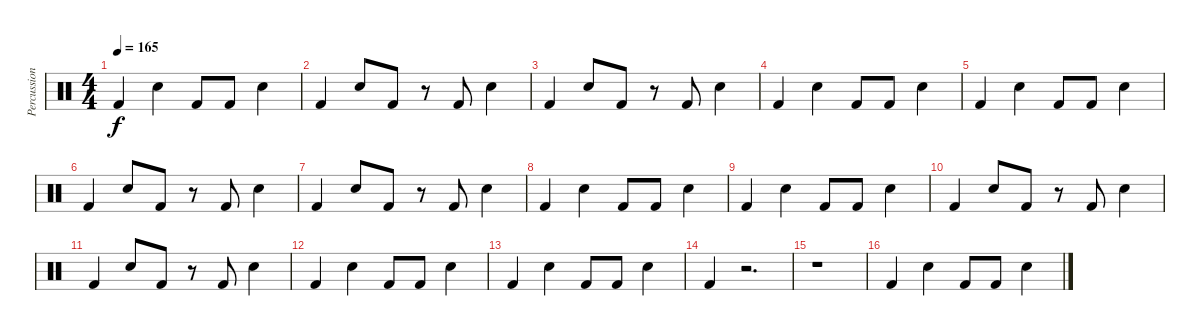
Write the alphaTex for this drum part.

\track ("Percussion" "Percussion") {instrument percussion}
\staff {score}
\articulation defaults
\ts (4 4)
\tempo 165
\clef neutral
\ks c "Kick (hit) 2".4{dy f} "Snare (hit) 2".4 "Kick (hit) 2".8 "Kick (hit) 2".8 "Snare (hit) 2".4
|
"Kick (hit) 2".4 "Snare (hit) 2".8 "Kick (hit) 2".8 r.8 "Kick (hit) 2".8 "Snare (hit) 2".4 |
"Kick (hit) 2".4 "Snare (hit) 2".8 "Kick (hit) 2".8 r.8 "Kick (hit) 2".8 "Snare (hit) 2".4 |
"Kick (hit) 2".4 "Snare (hit) 2".4 "Kick (hit) 2".8 "Kick (hit) 2".8 "Snare (hit) 2".4 |
"Kick (hit) 2".4 "Snare (hit) 2".4 "Kick (hit) 2".8 "Kick (hit) 2".8 "Snare (hit) 2".4 |
"Kick (hit) 2".4 "Snare (hit) 2".8 "Kick (hit) 2".8 r.8 "Kick (hit) 2".8 "Snare (hit) 2".4 |
"Kick (hit) 2".4 "Snare (hit) 2".8 "Kick (hit) 2".8 r.8 "Kick (hit) 2".8 "Snare (hit) 2".4 |
"Kick (hit) 2".4 "Snare (hit) 2".4 "Kick (hit) 2".8 "Kick (hit) 2".8 "Snare (hit) 2".4 |
"Kick (hit) 2".4 "Snare (hit) 2".4 "Kick (hit) 2".8 "Kick (hit) 2".8 "Snare (hit) 2".4 |
"Kick (hit) 2".4 "Snare (hit) 2".8 "Kick (hit) 2".8 r.8 "Kick (hit) 2".8 "Snare (hit) 2".4 |
"Kick (hit) 2".4 "Snare (hit) 2".8 "Kick (hit) 2".8 r.8 "Kick (hit) 2".8 "Snare (hit) 2".4 |
"Kick (hit) 2".4 "Snare (hit) 2".4 "Kick (hit) 2".8 "Kick (hit) 2".8 "Snare (hit) 2".4 |
"Kick (hit) 2".4 "Snare (hit) 2".4 "Kick (hit) 2".8 "Kick (hit) 2".8 "Snare (hit) 2".4 |
"Kick (hit) 2".4 r.2{d} |
r.1 |
"Kick (hit) 2".4 "Snare (hit) 2".4 "Kick (hit) 2".8 "Kick (hit) 2".8 "Snare (hit) 2".4
